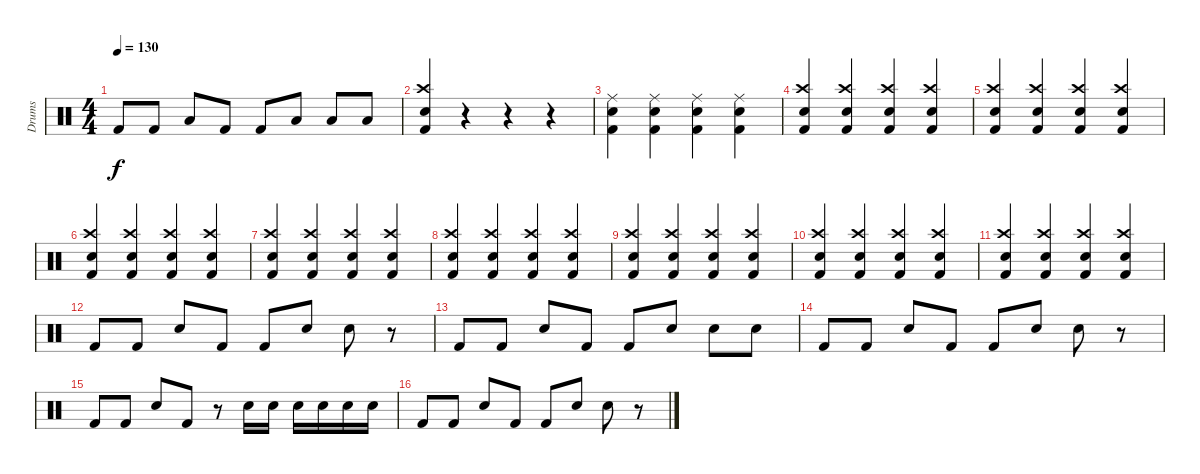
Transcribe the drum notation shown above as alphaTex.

\track ("Drums" "Drums") {instrument percussion}
\staff {score}
\articulation defaults
\ts (4 4)
\tempo 130
\clef neutral
\ks c "Kick (hit) 2".8{dy f} "Kick (hit) 2".8 "Low Tom (hit)".8 "Kick (hit) 2".8 "Kick (hit) 2".8 "Low Tom (hit)".8 "Low Tom (hit)".8 "Low Floor Tom (hit)".8
|
("Crash high (hit)" "Snare (hit) 2" "Kick (hit) 2").4 r.4 r.4 r.4 |
("Ride (middle)" "Kick (hit) 2" "Snare (hit) 2").4 ("Ride (middle)" "Kick (hit) 2" "Snare (hit) 2").4 ("Ride (middle)" "Kick (hit) 2" "Snare (hit) 2").4 ("Ride (middle)" "Kick (hit) 2" "Snare (hit) 2").4 |
("Crash high (hit)" "Kick (hit) 2" "Snare (hit) 2").4 ("Crash high (hit)" "Kick (hit) 2" "Snare (hit) 2").4 ("Crash high (hit)" "Kick (hit) 2" "Snare (hit) 2").4 ("Crash high (hit)" "Kick (hit) 2" "Snare (hit) 2").4 |
("Crash high (hit)" "Kick (hit) 2" "Snare (hit) 2").4 ("Crash high (hit)" "Kick (hit) 2" "Snare (hit) 2").4 ("Crash high (hit)" "Kick (hit) 2" "Snare (hit) 2").4 ("Crash high (hit)" "Kick (hit) 2" "Snare (hit) 2").4 |
("Crash high (hit)" "Kick (hit) 2" "Snare (hit) 2").4 ("Crash high (hit)" "Kick (hit) 2" "Snare (hit) 2").4 ("Crash high (hit)" "Kick (hit) 2" "Snare (hit) 2").4 ("Crash high (hit)" "Kick (hit) 2" "Snare (hit) 2").4 |
("Crash high (hit)" "Kick (hit) 2" "Snare (hit) 2").4 ("Crash high (hit)" "Kick (hit) 2" "Snare (hit) 2").4 ("Crash high (hit)" "Kick (hit) 2" "Snare (hit) 2").4 ("Crash high (hit)" "Kick (hit) 2" "Snare (hit) 2").4 |
("Crash high (hit)" "Kick (hit) 2" "Snare (hit) 2").4 ("Crash high (hit)" "Kick (hit) 2" "Snare (hit) 2").4 ("Crash high (hit)" "Kick (hit) 2" "Snare (hit) 2").4 ("Crash high (hit)" "Kick (hit) 2" "Snare (hit) 2").4 |
("Crash high (hit)" "Kick (hit) 2" "Snare (hit) 2").4 ("Crash high (hit)" "Kick (hit) 2" "Snare (hit) 2").4 ("Crash high (hit)" "Kick (hit) 2" "Snare (hit) 2").4 ("Crash high (hit)" "Kick (hit) 2" "Snare (hit) 2").4 |
("Crash high (hit)" "Kick (hit) 2" "Snare (hit) 2").4 ("Crash high (hit)" "Kick (hit) 2" "Snare (hit) 2").4 ("Crash high (hit)" "Kick (hit) 2" "Snare (hit) 2").4 ("Crash high (hit)" "Kick (hit) 2" "Snare (hit) 2").4 |
("Crash high (hit)" "Kick (hit) 2" "Snare (hit) 2").4 ("Crash high (hit)" "Kick (hit) 2" "Snare (hit) 2").4 ("Crash high (hit)" "Kick (hit) 2" "Snare (hit) 2").4 ("Crash high (hit)" "Kick (hit) 2" "Snare (hit) 2").4 |
"Kick (hit) 2".8 "Kick (hit) 2".8 "Snare (hit) 2".8 "Kick (hit) 2".8 "Kick (hit) 2".8 "Snare (hit) 2".8 "Snare (hit) 2".8 r.8 |
"Kick (hit) 2".8 "Kick (hit) 2".8 "Snare (hit) 2".8 "Kick (hit) 2".8 "Kick (hit) 2".8 "Snare (hit) 2".8 "Snare (hit) 2".8 "Snare (hit) 2".8 |
"Kick (hit) 2".8 "Kick (hit) 2".8 "Snare (hit) 2".8 "Kick (hit) 2".8 "Kick (hit) 2".8 "Snare (hit) 2".8 "Snare (hit) 2".8 r.8 |
"Kick (hit) 2".8 "Kick (hit) 2".8 "Snare (hit) 2".8 "Kick (hit) 2".8 r.8 "Snare (hit) 2".16 "Snare (hit) 2".16 "Snare (hit) 2".16 "Snare (hit) 2".16 "Snare (hit) 2".16 "Snare (hit) 2".16 |
"Kick (hit) 2".8 "Kick (hit) 2".8 "Snare (hit) 2".8 "Kick (hit) 2".8 "Kick (hit) 2".8 "Snare (hit) 2".8 "Snare (hit) 2".8 r.8
